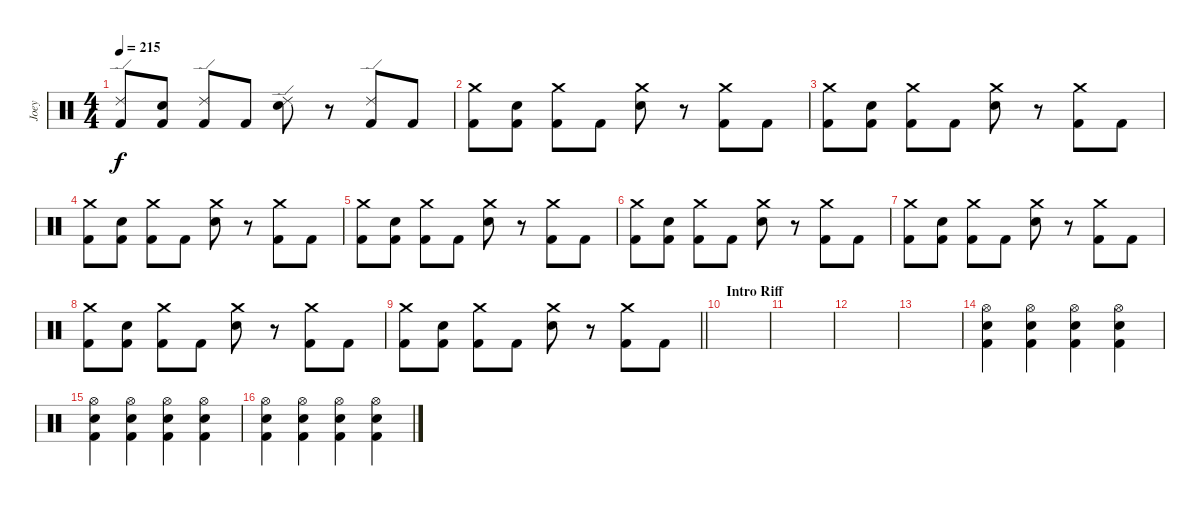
\track ("Joey" "Joey") {instrument percussion}
\staff {score}
\articulation defaults
\ts (4 4)
\tempo 215
\clef neutral
\ks c
("Ride (edge) 2" "Kick (hit) 2").8{dy f} ("Electric Snare (hit)" "Kick (hit) 2").8 ("Ride (edge) 2" "Kick (hit) 2").8 "Kick (hit) 2".8 ("Ride (edge) 2" "Electric Snare (hit)").8 r.8 ("Ride (edge) 2" "Kick (hit) 2").8 "Kick (hit) 2".8 |
("Crash medium (hit)" "Kick (hit) 2").8 ("Electric Snare (hit)" "Kick (hit) 2").8 ("Crash medium (hit)" "Kick (hit) 2").8 "Kick (hit) 2".8 ("Crash medium (hit)" "Electric Snare (hit)").8 r.8 ("Crash medium (hit)" "Kick (hit) 2").8 "Kick (hit) 2".8 |
("Crash medium (hit)" "Kick (hit) 2").8 ("Electric Snare (hit)" "Kick (hit) 2").8 ("Crash medium (hit)" "Kick (hit) 2").8 "Kick (hit) 2".8 ("Crash medium (hit)" "Electric Snare (hit)").8 r.8 ("Crash medium (hit)" "Kick (hit) 2").8 "Kick (hit) 2".8 |
("Crash medium (hit)" "Kick (hit) 2").8 ("Electric Snare (hit)" "Kick (hit) 2").8 ("Crash medium (hit)" "Kick (hit) 2").8 "Kick (hit) 2".8 ("Crash medium (hit)" "Electric Snare (hit)").8 r.8 ("Crash medium (hit)" "Kick (hit) 2").8 "Kick (hit) 2".8 |
("Crash medium (hit)" "Kick (hit) 2").8 ("Electric Snare (hit)" "Kick (hit) 2").8 ("Crash medium (hit)" "Kick (hit) 2").8 "Kick (hit) 2".8 ("Crash medium (hit)" "Electric Snare (hit)").8 r.8 ("Crash medium (hit)" "Kick (hit) 2").8 "Kick (hit) 2".8 |
("Crash medium (hit)" "Kick (hit) 2").8 ("Electric Snare (hit)" "Kick (hit) 2").8 ("Crash medium (hit)" "Kick (hit) 2").8 "Kick (hit) 2".8 ("Crash medium (hit)" "Electric Snare (hit)").8 r.8 ("Crash medium (hit)" "Kick (hit) 2").8 "Kick (hit) 2".8 |
("Crash medium (hit)" "Kick (hit) 2").8 ("Electric Snare (hit)" "Kick (hit) 2").8 ("Crash medium (hit)" "Kick (hit) 2").8 "Kick (hit) 2".8 ("Crash medium (hit)" "Electric Snare (hit)").8 r.8 ("Crash medium (hit)" "Kick (hit) 2").8 "Kick (hit) 2".8 |
("Crash medium (hit)" "Kick (hit) 2").8 ("Electric Snare (hit)" "Kick (hit) 2").8 ("Crash medium (hit)" "Kick (hit) 2").8 "Kick (hit) 2".8 ("Crash medium (hit)" "Electric Snare (hit)").8 r.8 ("Crash medium (hit)" "Kick (hit) 2").8 "Kick (hit) 2".8 |
\barLineRight lightlight
("Crash medium (hit)" "Kick (hit) 2").8 ("Electric Snare (hit)" "Kick (hit) 2").8 ("Crash medium (hit)" "Kick (hit) 2").8 "Kick (hit) 2".8 ("Crash medium (hit)" "Electric Snare (hit)").8 r.8 ("Crash medium (hit)" "Kick (hit) 2").8 "Kick (hit) 2".8 |
\section ("" "Intro Riff")
|
|
|
|
("Hi-Hat (open)" "Electric Snare (hit)" "Kick (hit) 2").4 ("Hi-Hat (open)" "Electric Snare (hit)" "Kick (hit) 2").4 ("Hi-Hat (open)" "Electric Snare (hit)" "Kick (hit) 2").4 ("Hi-Hat (open)" "Electric Snare (hit)" "Kick (hit) 2").4 |
("Hi-Hat (open)" "Electric Snare (hit)" "Kick (hit) 2").4 ("Hi-Hat (open)" "Electric Snare (hit)" "Kick (hit) 2").4 ("Hi-Hat (open)" "Electric Snare (hit)" "Kick (hit) 2").4 ("Hi-Hat (open)" "Electric Snare (hit)" "Kick (hit) 2").4 |
("Hi-Hat (open)" "Electric Snare (hit)" "Kick (hit) 2").4 ("Hi-Hat (open)" "Electric Snare (hit)" "Kick (hit) 2").4 ("Hi-Hat (open)" "Electric Snare (hit)" "Kick (hit) 2").4 ("Hi-Hat (open)" "Electric Snare (hit)" "Kick (hit) 2").4
